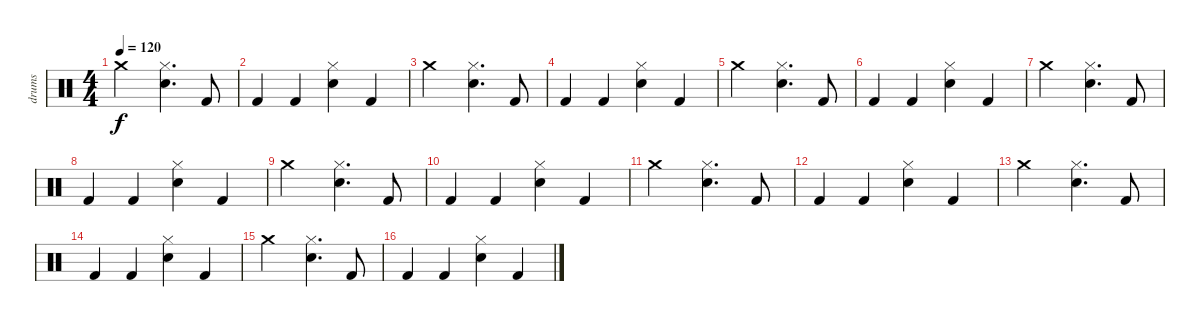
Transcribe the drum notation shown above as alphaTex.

\track ("drums" "drums") {instrument percussion}
\staff {score}
\articulation defaults
\ts (4 4)
\tempo 120
\clef neutral
\ks c "Crash medium (hit)".2{dy f}
("Snare (hit) 2" "Hi-Hat (closed)").4{d} "Kick (hit) 2".8 |
"Kick (hit) 2".4 "Kick (hit) 2".4 ("Snare (hit) 2" "Hi-Hat (closed)").4 "Kick (hit) 2".4 |
"Crash medium (hit)".2 ("Snare (hit) 2" "Hi-Hat (closed)").4{d} "Kick (hit) 2".8 |
"Kick (hit) 2".4 "Kick (hit) 2".4 ("Snare (hit) 2" "Hi-Hat (closed)").4 "Kick (hit) 2".4 |
"Crash medium (hit)".2 ("Snare (hit) 2" "Hi-Hat (closed)").4{d} "Kick (hit) 2".8 |
"Kick (hit) 2".4 "Kick (hit) 2".4 ("Snare (hit) 2" "Hi-Hat (closed)").4 "Kick (hit) 2".4 |
"Crash medium (hit)".2 ("Snare (hit) 2" "Hi-Hat (closed)").4{d} "Kick (hit) 2".8 |
"Kick (hit) 2".4 "Kick (hit) 2".4 ("Snare (hit) 2" "Hi-Hat (closed)").4 "Kick (hit) 2".4 |
"Crash medium (hit)".2 ("Snare (hit) 2" "Hi-Hat (closed)").4{d} "Kick (hit) 2".8 |
"Kick (hit) 2".4 "Kick (hit) 2".4 ("Snare (hit) 2" "Hi-Hat (closed)").4 "Kick (hit) 2".4 |
"Crash medium (hit)".2 ("Snare (hit) 2" "Hi-Hat (closed)").4{d} "Kick (hit) 2".8 |
"Kick (hit) 2".4 "Kick (hit) 2".4 ("Snare (hit) 2" "Hi-Hat (closed)").4 "Kick (hit) 2".4 |
"Crash medium (hit)".2 ("Snare (hit) 2" "Hi-Hat (closed)").4{d} "Kick (hit) 2".8 |
"Kick (hit) 2".4 "Kick (hit) 2".4 ("Snare (hit) 2" "Hi-Hat (closed)").4 "Kick (hit) 2".4 |
"Crash medium (hit)".2 ("Snare (hit) 2" "Hi-Hat (closed)").4{d} "Kick (hit) 2".8 |
"Kick (hit) 2".4 "Kick (hit) 2".4 ("Snare (hit) 2" "Hi-Hat (closed)").4 "Kick (hit) 2".4
